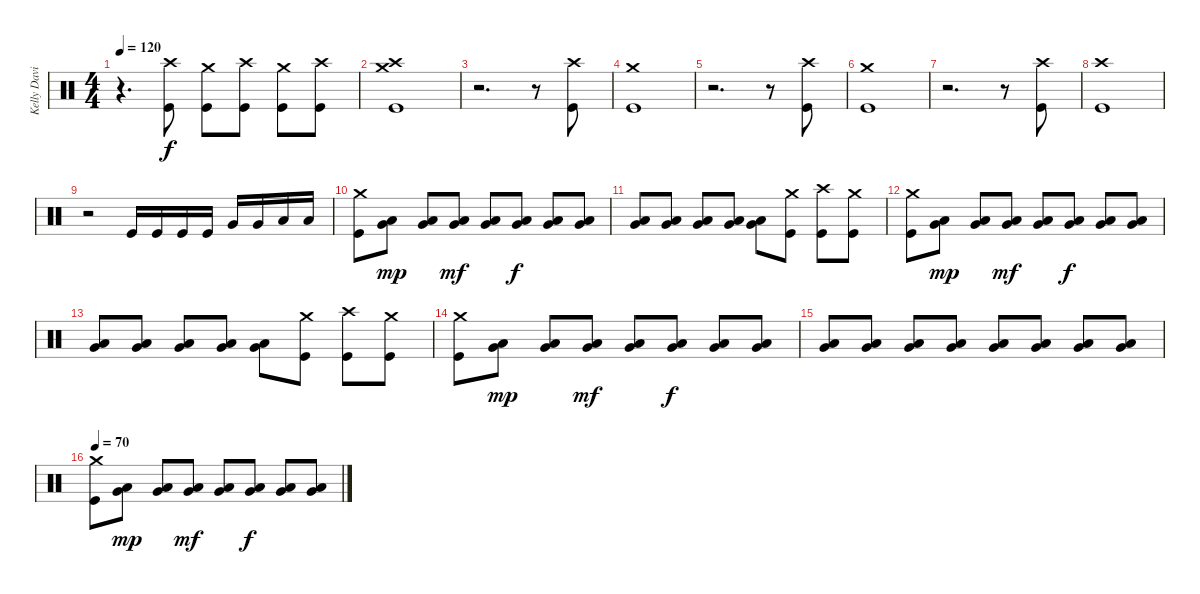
\track ("Kelly David Smith" "Kelly Davi") {instrument percussion}
\staff {score}
\articulation defaults
\ts (4 4)
\tempo 120
\clef neutral
\ks c
r.4{d dy f} ("Crash high (hit)" "Kick (hit)").8 ("Crash medium (hit)" "Kick (hit)").8 ("Crash high (hit)" "Kick (hit)").8 ("Crash medium (hit)" "Kick (hit)").8 ("Crash high (hit)" "Kick (hit)").8 |
("Crash medium (hit)" "Crash high (hit)" "Kick (hit)").1 |
r.2{d} r.8 ("Crash high (hit)" "Kick (hit)").8 |
("Crash medium (hit)" "Kick (hit)").1 |
r.2{d} r.8 ("Crash high (hit)" "Kick (hit)").8 |
("Crash medium (hit)" "Kick (hit)").1 |
r.2{d} r.8 ("Crash high (hit)" "Kick (hit)").8 |
("Crash high (hit)" "Kick (hit)").1 |
r.2 "Kick (hit)".16 "Kick (hit)".16 "Kick (hit)".16 "Kick (hit)".16 "Very Low Tom (hit)".16 "Very Low Tom (hit)".16 "Low Floor Tom (hit)".16 "Low Floor Tom (hit)".16 |
("Crash medium (hit)" "Kick (hit)").8 ("Low Tom (hit)" "Very Low Tom (hit)").8{dy mp} ("Low Tom (hit)" "Very Low Tom (hit)").8 ("Low Tom (hit)" "Very Low Tom (hit)").8{dy mf} ("Low Tom (hit)" "Very Low Tom (hit)").8 ("Low Tom (hit)" "Very Low Tom (hit)").8{dy f} ("Low Tom (hit)" "Very Low Tom (hit)").8 ("Low Tom (hit)" "Very Low Tom (hit)").8 |
("Low Tom (hit)" "Very Low Tom (hit)").8 ("Low Tom (hit)" "Very Low Tom (hit)").8 ("Low Tom (hit)" "Very Low Tom (hit)").8 ("Low Tom (hit)" "Very Low Tom (hit)").8 ("Low Tom (hit)" "Very Low Tom (hit)").8 ("Crash medium (hit)" "Kick (hit)").8 ("Crash high (hit)" "Kick (hit)").8 ("Crash medium (hit)" "Kick (hit)").8 |
("Crash medium (hit)" "Kick (hit)").8 ("Low Tom (hit)" "Very Low Tom (hit)").8{dy mp} ("Low Tom (hit)" "Very Low Tom (hit)").8 ("Low Tom (hit)" "Very Low Tom (hit)").8{dy mf} ("Low Tom (hit)" "Very Low Tom (hit)").8 ("Low Tom (hit)" "Very Low Tom (hit)").8{dy f} ("Low Tom (hit)" "Very Low Tom (hit)").8 ("Low Tom (hit)" "Very Low Tom (hit)").8 |
("Low Tom (hit)" "Very Low Tom (hit)").8 ("Low Tom (hit)" "Very Low Tom (hit)").8 ("Low Tom (hit)" "Very Low Tom (hit)").8 ("Low Tom (hit)" "Very Low Tom (hit)").8 ("Low Tom (hit)" "Very Low Tom (hit)").8 ("Crash medium (hit)" "Kick (hit)").8 ("Crash high (hit)" "Kick (hit)").8 ("Crash medium (hit)" "Kick (hit)").8 |
("Crash medium (hit)" "Kick (hit)").8 ("Low Tom (hit)" "Very Low Tom (hit)").8{dy mp} ("Low Tom (hit)" "Very Low Tom (hit)").8 ("Low Tom (hit)" "Very Low Tom (hit)").8{dy mf} ("Low Tom (hit)" "Very Low Tom (hit)").8 ("Low Tom (hit)" "Very Low Tom (hit)").8{dy f} ("Low Tom (hit)" "Very Low Tom (hit)").8 ("Low Tom (hit)" "Very Low Tom (hit)").8 |
("Low Tom (hit)" "Very Low Tom (hit)").8 ("Low Tom (hit)" "Very Low Tom (hit)").8 ("Low Tom (hit)" "Very Low Tom (hit)").8 ("Low Tom (hit)" "Very Low Tom (hit)").8 ("Low Tom (hit)" "Very Low Tom (hit)").8 ("Low Tom (hit)" "Very Low Tom (hit)").8 ("Low Tom (hit)" "Very Low Tom (hit)").8 ("Low Tom (hit)" "Very Low Tom (hit)").8 |
\tempo 70
("Crash medium (hit)" "Kick (hit)").8 ("Low Tom (hit)" "Very Low Tom (hit)").8{dy mp} ("Low Tom (hit)" "Very Low Tom (hit)").8 ("Low Tom (hit)" "Very Low Tom (hit)").8{dy mf} ("Low Tom (hit)" "Very Low Tom (hit)").8 ("Low Tom (hit)" "Very Low Tom (hit)").8{dy f} ("Low Tom (hit)" "Very Low Tom (hit)").8 ("Low Tom (hit)" "Very Low Tom (hit)").8
